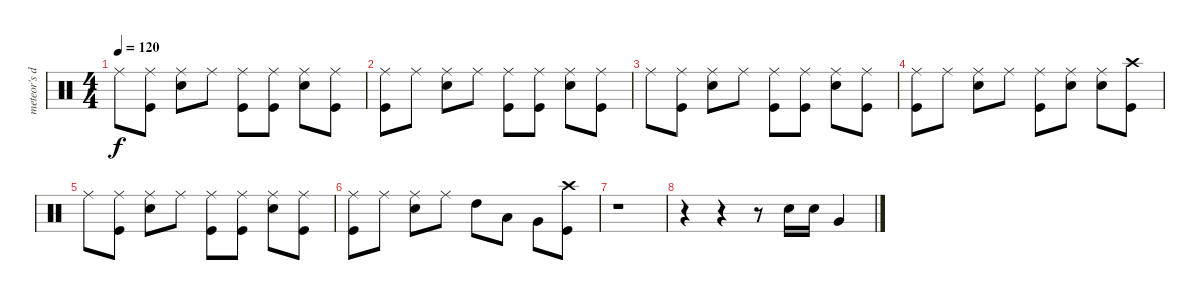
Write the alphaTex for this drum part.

\track ("meteor's drum:)" "meteor's d") {instrument percussion}
\staff {score}
\articulation defaults
\ts (4 4)
\tempo 120
\clef neutral
\ks c "Ride (middle)".8{dy f}
("Ride (middle)" "Kick (hit)").8 ("Ride (middle)" "Snare (hit) 2").8 "Ride (middle)".8 ("Ride (middle)" "Kick (hit)").8 ("Ride (middle)" "Kick (hit)").8 ("Ride (middle)" "Snare (hit) 2").8 ("Ride (middle)" "Kick (hit)").8 |
("Ride (middle)" "Kick (hit)").8 "Ride (middle)".8 ("Ride (middle)" "Snare (hit) 2").8 "Ride (middle)".8 ("Ride (middle)" "Kick (hit)").8 ("Ride (middle)" "Kick (hit)").8 ("Ride (middle)" "Snare (hit) 2").8 ("Ride (middle)" "Kick (hit)").8 |
"Ride (middle)".8 ("Ride (middle)" "Kick (hit)").8 ("Ride (middle)" "Snare (hit) 2").8 "Ride (middle)".8 ("Ride (middle)" "Kick (hit)").8 ("Ride (middle)" "Kick (hit)").8 ("Ride (middle)" "Snare (hit) 2").8 ("Ride (middle)" "Kick (hit)").8 |
("Ride (middle)" "Kick (hit)").8 "Ride (middle)".8 ("Ride (middle)" "Snare (hit) 2").8 "Ride (middle)".8 ("Ride (middle)" "Kick (hit)").8 ("Ride (middle)" "Snare (hit) 2").8 ("Ride (middle)" "Snare (hit) 2").8 ("Kick (hit)" "Crash high (hit)").8 |
"Ride (middle)".8 ("Ride (middle)" "Kick (hit)").8 ("Ride (middle)" "Snare (hit) 2").8 "Ride (middle)".8 ("Ride (middle)" "Kick (hit)").8 ("Ride (middle)" "Kick (hit)").8 ("Ride (middle)" "Snare (hit) 2").8 ("Ride (middle)" "Kick (hit)").8 |
("Ride (middle)" "Kick (hit)").8 "Ride (middle)".8 ("Ride (middle)" "Snare (hit) 2").8 "Ride (middle)".8 "High Tom (hit)".8 "Low Tom (hit)".8 "Very Low Tom (hit)".8 ("Crash high (hit)" "Kick (hit)").8 |
r.1 |
r.4 r.4 r.8 "Snare (hit) 2".16 "Snare (hit) 2".16 "Very Low Tom (hit)".4
